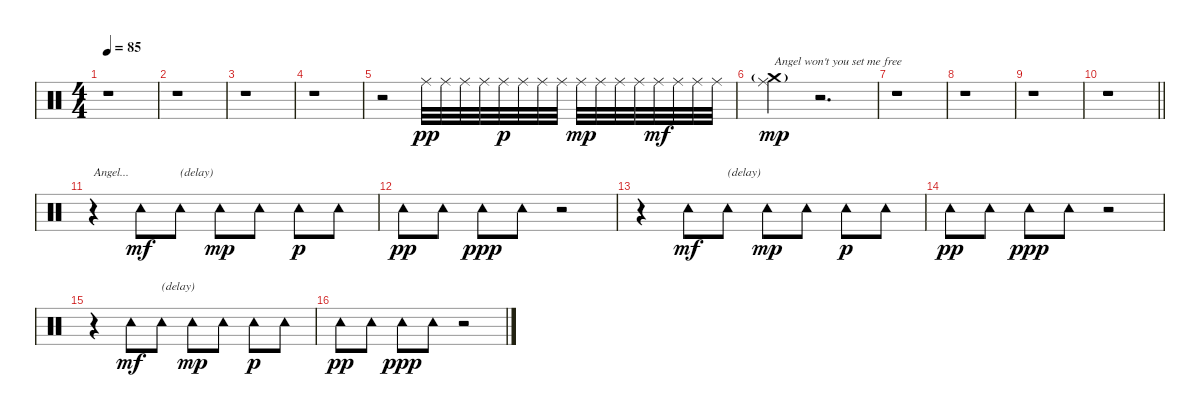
\track "" {instrument percussion}
\staff {score}
\articulation defaults
\ts (4 4)
\tempo 85
\clef neutral
\ks c
r.1{dy pp} |
r.1 |
r.1 |
r.1 |
r.2 "Ride (middle)".32 "Ride (middle)".32 "Ride (middle)".32 "Ride (middle)".32 "Ride (middle)".32{dy p} "Ride (middle)".32 "Ride (middle)".32 "Ride (middle)".32 "Ride (middle)".32{dy mp} "Ride (middle)".32 "Ride (middle)".32 "Ride (middle)".32 "Ride (middle)".32{dy mf} "Ride (middle)".32 "Ride (middle)".32 "Ride (middle)".32 |
("Ride (middle)" "Crash medium (hit)"{g}).4{txt "Angel won't you set me free" dy mp} r.2{d} |
r.1 |
r.1 |
r.1 |
\barLineRight lightlight
r.1 |
r.4{txt "Angel..."} "Tambourine (hit)".8{dy mf} "Tambourine (hit)".8{txt "(delay)"} "Tambourine (hit)".8{dy mp} "Tambourine (hit)".8 "Tambourine (hit)".8{dy p} "Tambourine (hit)".8 |
"Tambourine (hit)".8{dy pp} "Tambourine (hit)".8 "Tambourine (hit)".8{dy ppp} "Tambourine (hit)".8 r.2 |
r.4 "Tambourine (hit)".8{dy mf} "Tambourine (hit)".8{txt "(delay)"} "Tambourine (hit)".8{dy mp} "Tambourine (hit)".8 "Tambourine (hit)".8{dy p} "Tambourine (hit)".8 |
"Tambourine (hit)".8{dy pp} "Tambourine (hit)".8 "Tambourine (hit)".8{dy ppp} "Tambourine (hit)".8 r.2 |
r.4 "Tambourine (hit)".8{dy mf} "Tambourine (hit)".8{txt "(delay)"} "Tambourine (hit)".8{dy mp} "Tambourine (hit)".8 "Tambourine (hit)".8{dy p} "Tambourine (hit)".8 |
"Tambourine (hit)".8{dy pp} "Tambourine (hit)".8 "Tambourine (hit)".8{dy ppp} "Tambourine (hit)".8 r.2
